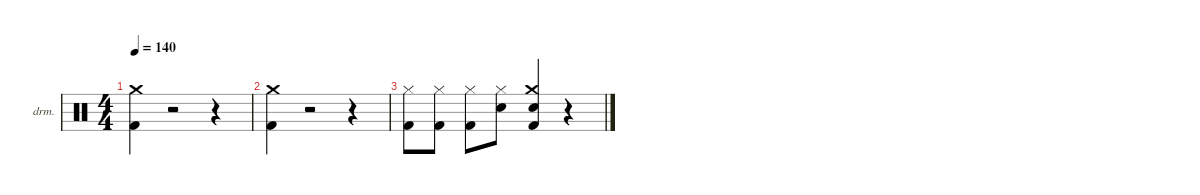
\defaultSystemsLayout 4
\hideDynamics
\bracketExtendMode nobrackets
\firstSystemTrackNameOrientation horizontal
\otherSystemsTrackNameOrientation horizontal
\track ("Drums" "drm.") {instrument percussion}
\staff {score}
\articulation defaults
\ts (4 4)
\tempo 140
\clef neutral
\ks c
("Kick (hit) 2" "Crash medium (hit)").4{dy f} r.2 r.4 |
("Crash medium (hit)" "Kick (hit) 2").4 r.2 r.4 |
("Hi-Hat (closed)" "Kick (hit) 2").8 ("Hi-Hat (closed)" "Kick (hit) 2").8 ("Hi-Hat (closed)" "Kick (hit) 2").8 ("Snare (hit) 2" "Hi-Hat (closed)").8 ("Kick (hit) 2" "Snare (hit) 2" "Crash medium (hit)").4 r.4
